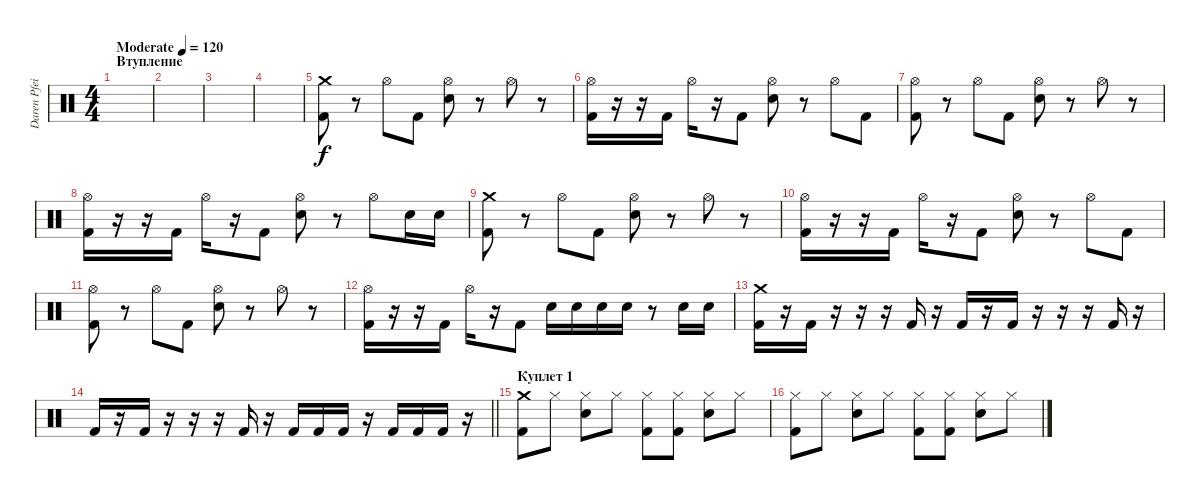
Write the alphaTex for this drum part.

\track ("Daren Pfeifer" "Daren Pfei") {instrument percussion}
\staff {score}
\articulation defaults
\ts (4 4)
\section ("" "Втупление")
\tempo (120 "Moderate")
\clef neutral
\ks c
|
|
|
|
("Crash medium (hit)" "Kick (hit) 2").8 r.8 "Hi-Hat (open)".8 "Kick (hit) 2".8 ("Hi-Hat (open)" "Snare (hit) 2").8 r.8 "Hi-Hat (open)".8 r.8 |
("Hi-Hat (open)" "Kick (hit) 2").16 r.16 r.16 "Kick (hit) 2".16 "Hi-Hat (open)".16 r.16 "Kick (hit) 2".8 ("Hi-Hat (open)" "Snare (hit) 2").8 r.8 "Hi-Hat (open)".8 "Kick (hit) 2".8 |
("Hi-Hat (open)" "Kick (hit) 2").8 r.8 "Hi-Hat (open)".8 "Kick (hit) 2".8 ("Hi-Hat (open)" "Snare (hit) 2").8 r.8 "Hi-Hat (open)".8 r.8 |
("Hi-Hat (open)" "Kick (hit) 2").16 r.16 r.16 "Kick (hit) 2".16 "Hi-Hat (open)".16 r.16 "Kick (hit) 2".8 ("Hi-Hat (open)" "Snare (hit) 2").8 r.8 "Hi-Hat (open)".8 "Snare (hit) 2".16 "Snare (hit) 2".16 |
("Crash medium (hit)" "Kick (hit) 2").8 r.8 "Hi-Hat (open)".8 "Kick (hit) 2".8 ("Hi-Hat (open)" "Snare (hit) 2").8 r.8 "Hi-Hat (open)".8 r.8 |
("Hi-Hat (open)" "Kick (hit) 2").16 r.16 r.16 "Kick (hit) 2".16 "Hi-Hat (open)".16 r.16 "Kick (hit) 2".8 ("Hi-Hat (open)" "Snare (hit) 2").8 r.8 "Hi-Hat (open)".8 "Kick (hit) 2".8 |
("Hi-Hat (open)" "Kick (hit) 2").8 r.8 "Hi-Hat (open)".8 "Kick (hit) 2".8 ("Hi-Hat (open)" "Snare (hit) 2").8 r.8 "Hi-Hat (open)".8 r.8 |
("Hi-Hat (open)" "Kick (hit) 2").16 r.16 r.16 "Kick (hit) 2".16 "Hi-Hat (open)".16 r.16 "Kick (hit) 2".8 "Snare (hit) 2".16 "Snare (hit) 2".16 "Snare (hit) 2".16 "Snare (hit) 2".16 r.8 "Snare (hit) 2".16 "Snare (hit) 2".16 |
("Crash medium (hit)" "Kick (hit) 2").16 r.16 "Kick (hit) 2".16 r.16 r.16 r.16 "Kick (hit) 2".16 r.16 "Kick (hit) 2".16 r.16 "Kick (hit) 2".16 r.16 r.16 r.16 "Kick (hit) 2".16 r.16 |
\barLineRight lightlight "Kick (hit) 2".16
r.16 "Kick (hit) 2".16 r.16 r.16 r.16 "Kick (hit) 2".16 r.16 "Kick (hit) 2".16 "Kick (hit) 2".16 "Kick (hit) 2".16 r.16 "Kick (hit) 2".16 "Kick (hit) 2".16 "Kick (hit) 2".16 r.16 |
\section ("" "Куплет 1")
("Crash medium (hit)" "Kick (hit) 2").8 "Hi-Hat (closed)".8 ("Hi-Hat (closed)" "Snare (hit) 2").8 "Hi-Hat (closed)".8 ("Hi-Hat (closed)" "Kick (hit) 2").8 ("Hi-Hat (closed)" "Kick (hit) 2").8 ("Hi-Hat (closed)" "Snare (hit) 2").8 "Hi-Hat (closed)".8 |
("Hi-Hat (closed)" "Kick (hit) 2").8 "Hi-Hat (closed)".8 ("Hi-Hat (closed)" "Snare (hit) 2").8 "Hi-Hat (closed)".8 ("Hi-Hat (closed)" "Kick (hit) 2").8 ("Hi-Hat (closed)" "Kick (hit) 2").8 ("Hi-Hat (closed)" "Snare (hit) 2").8 "Hi-Hat (closed)".8
